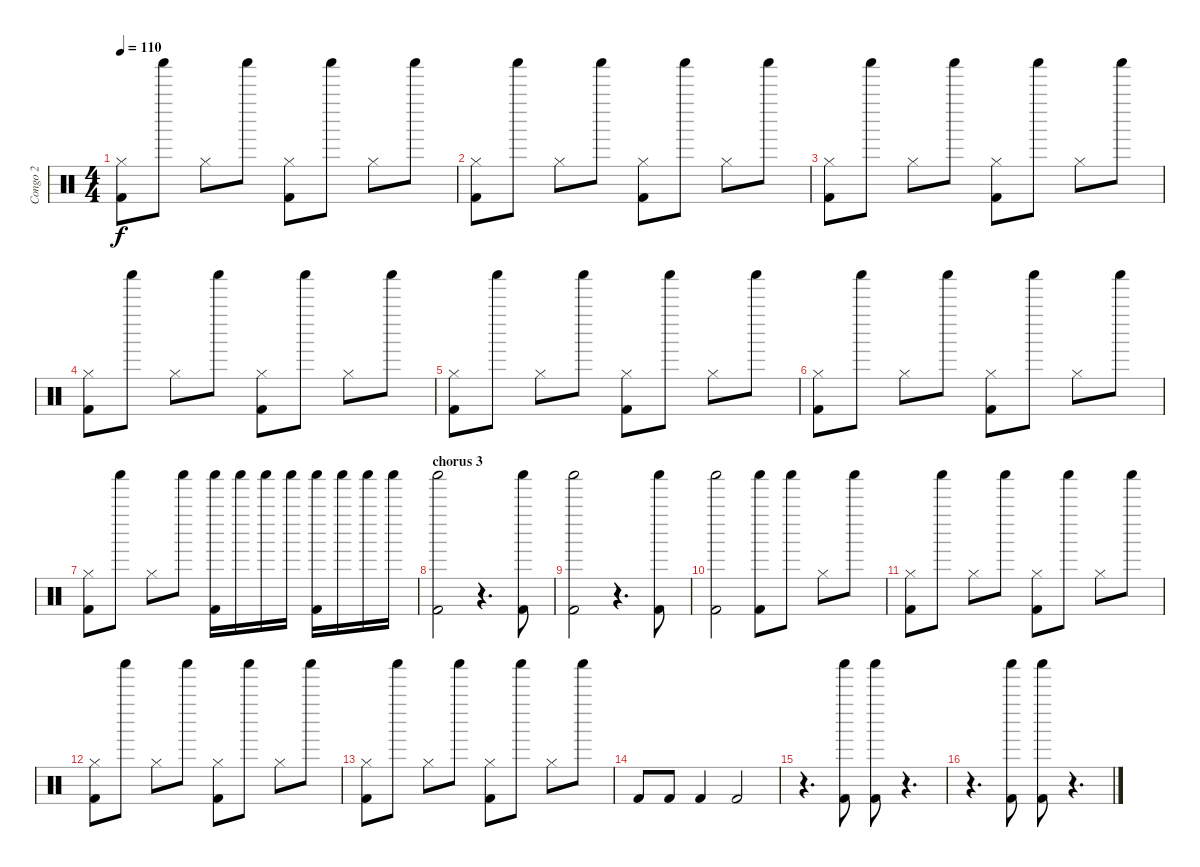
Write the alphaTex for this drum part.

\track ("Congo 2" "Congo 2") {instrument percussion}
\staff {score}
\articulation defaults
\ts (4 4)
\tempo 110
\clef neutral
\ks c
("Kick (hit) 2" "Hi-Hat (closed)").8{dy f} "Shaker (hit)".8 "Hi-Hat (closed)".8 "Shaker (hit)".8 ("Kick (hit) 2" "Hi-Hat (closed)").8 "Shaker (hit)".8 "Hi-Hat (closed)".8 "Shaker (hit)".8 |
("Kick (hit) 2" "Hi-Hat (closed)").8 "Shaker (hit)".8 "Hi-Hat (closed)".8 "Shaker (hit)".8 ("Kick (hit) 2" "Hi-Hat (closed)").8 "Shaker (hit)".8 "Hi-Hat (closed)".8 "Shaker (hit)".8 |
("Kick (hit) 2" "Hi-Hat (closed)").8 "Shaker (hit)".8 "Hi-Hat (closed)".8 "Shaker (hit)".8 ("Kick (hit) 2" "Hi-Hat (closed)").8 "Shaker (hit)".8 "Hi-Hat (closed)".8 "Shaker (hit)".8 |
("Kick (hit) 2" "Hi-Hat (closed)").8 "Shaker (hit)".8 "Hi-Hat (closed)".8 "Shaker (hit)".8 ("Kick (hit) 2" "Hi-Hat (closed)").8 "Shaker (hit)".8 "Hi-Hat (closed)".8 "Shaker (hit)".8 |
("Kick (hit) 2" "Hi-Hat (closed)").8 "Shaker (hit)".8 "Hi-Hat (closed)".8 "Shaker (hit)".8 ("Kick (hit) 2" "Hi-Hat (closed)").8 "Shaker (hit)".8 "Hi-Hat (closed)".8 "Shaker (hit)".8 |
("Kick (hit) 2" "Hi-Hat (closed)").8 "Shaker (hit)".8 "Hi-Hat (closed)".8 "Shaker (hit)".8 ("Kick (hit) 2" "Hi-Hat (closed)").8 "Shaker (hit)".8 "Hi-Hat (closed)".8 "Shaker (hit)".8 |
("Kick (hit) 2" "Hi-Hat (closed)").8 "Shaker (hit)".8 "Hi-Hat (closed)".8 "Shaker (hit)".8 ("Kick (hit) 2" "Shaker (hit)").16 "Shaker (hit)".16 "Shaker (hit)".16 "Shaker (hit)".16 ("Kick (hit) 2" "Shaker (hit)").16 "Shaker (hit)".16 "Shaker (hit)".16 "Shaker (hit)".16 |
\section ("" "chorus 3")
("Kick (hit) 2" "Shaker (hit)").2 r.4{d} ("Kick (hit) 2" "Shaker (hit)").8 |
("Kick (hit) 2" "Shaker (hit)").2 r.4{d} ("Kick (hit) 2" "Shaker (hit)").8 |
("Kick (hit) 2" "Shaker (hit)").2 ("Kick (hit) 2" "Shaker (hit)").8 "Shaker (hit)".8 "Hi-Hat (closed)".8 "Shaker (hit)".8 |
("Kick (hit) 2" "Hi-Hat (closed)").8 "Shaker (hit)".8 "Hi-Hat (closed)".8 "Shaker (hit)".8 ("Kick (hit) 2" "Hi-Hat (closed)").8 "Shaker (hit)".8 "Hi-Hat (closed)".8 "Shaker (hit)".8 |
("Kick (hit) 2" "Hi-Hat (closed)").8 "Shaker (hit)".8 "Hi-Hat (closed)".8 "Shaker (hit)".8 ("Kick (hit) 2" "Hi-Hat (closed)").8 "Shaker (hit)".8 "Hi-Hat (closed)".8 "Shaker (hit)".8 |
("Kick (hit) 2" "Hi-Hat (closed)").8 "Shaker (hit)".8 "Hi-Hat (closed)".8 "Shaker (hit)".8 ("Kick (hit) 2" "Hi-Hat (closed)").8 "Shaker (hit)".8 "Hi-Hat (closed)".8 "Shaker (hit)".8 |
"Kick (hit) 2".8 "Kick (hit) 2".8 "Kick (hit) 2".4 "Kick (hit) 2".2 |
r.4{d} ("Kick (hit) 2" "Shaker (hit)").8 ("Kick (hit) 2" "Shaker (hit)").8 r.4{d} |
r.4{d} ("Kick (hit) 2" "Shaker (hit)").8 ("Kick (hit) 2" "Shaker (hit)").8 r.4{d}
